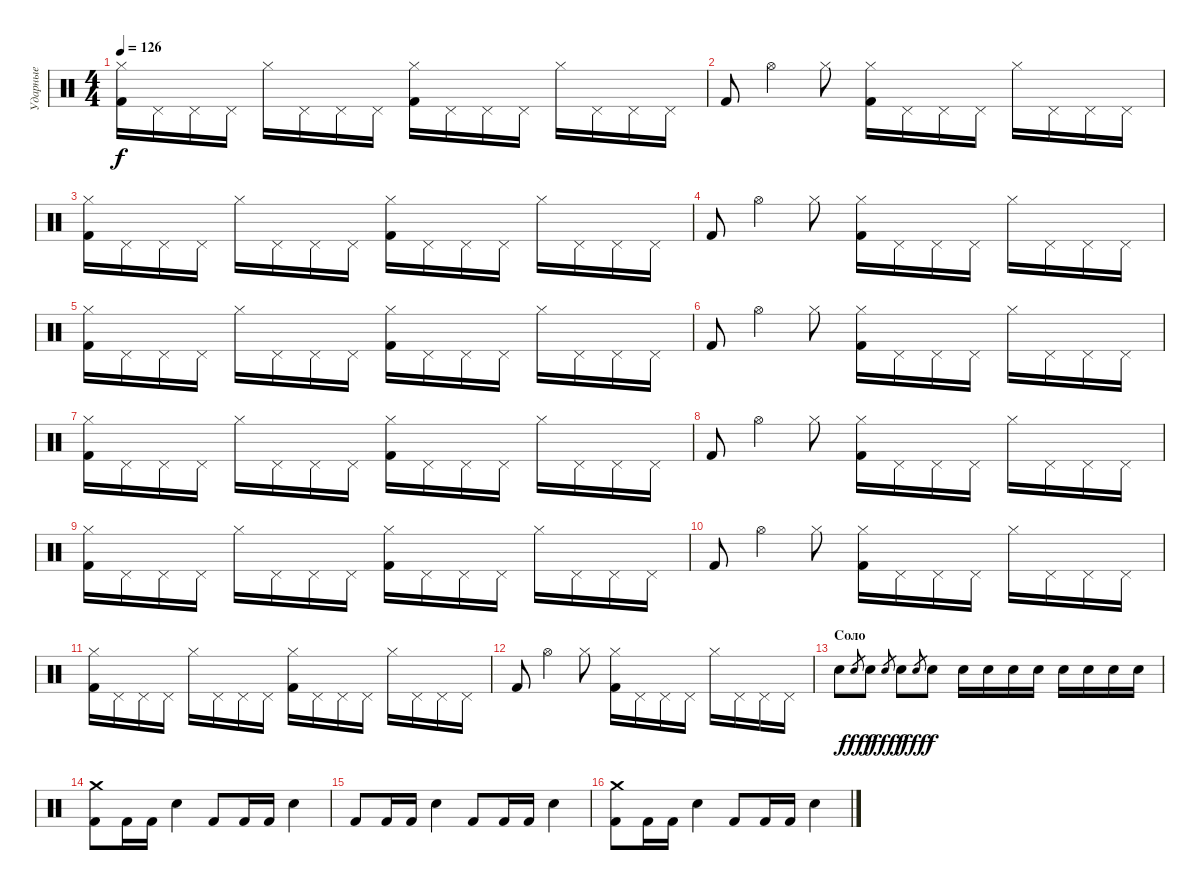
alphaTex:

\track ("Ударные" "Ударные") {instrument percussion}
\staff {score}
\articulation defaults
\ts (4 4)
\tempo 126
\clef neutral
\ks c
("Hi-Hat (closed)" "Kick (hit) 2").16{dy f} "Pedal Hi-Hat (hit)".16 "Pedal Hi-Hat (hit)".16 "Pedal Hi-Hat (hit)".16 "Hi-Hat (closed)".16 "Pedal Hi-Hat (hit)".16 "Pedal Hi-Hat (hit)".16 "Pedal Hi-Hat (hit)".16 ("Hi-Hat (closed)" "Kick (hit) 2").16 "Pedal Hi-Hat (hit)".16 "Pedal Hi-Hat (hit)".16 "Pedal Hi-Hat (hit)".16 "Hi-Hat (closed)".16 "Pedal Hi-Hat (hit)".16 "Pedal Hi-Hat (hit)".16 "Pedal Hi-Hat (hit)".16 |
"Kick (hit) 2".8 "Hi-Hat (open)".4 "Hi-Hat (closed)".8 ("Hi-Hat (closed)" "Kick (hit) 2").16 "Pedal Hi-Hat (hit)".16 "Pedal Hi-Hat (hit)".16 "Pedal Hi-Hat (hit)".16 "Hi-Hat (closed)".16 "Pedal Hi-Hat (hit)".16 "Pedal Hi-Hat (hit)".16 "Pedal Hi-Hat (hit)".16 |
("Hi-Hat (closed)" "Kick (hit) 2").16 "Pedal Hi-Hat (hit)".16 "Pedal Hi-Hat (hit)".16 "Pedal Hi-Hat (hit)".16 "Hi-Hat (closed)".16 "Pedal Hi-Hat (hit)".16 "Pedal Hi-Hat (hit)".16 "Pedal Hi-Hat (hit)".16 ("Hi-Hat (closed)" "Kick (hit) 2").16 "Pedal Hi-Hat (hit)".16 "Pedal Hi-Hat (hit)".16 "Pedal Hi-Hat (hit)".16 "Hi-Hat (closed)".16 "Pedal Hi-Hat (hit)".16 "Pedal Hi-Hat (hit)".16 "Pedal Hi-Hat (hit)".16 |
"Kick (hit) 2".8 "Hi-Hat (open)".4 "Hi-Hat (closed)".8 ("Hi-Hat (closed)" "Kick (hit) 2").16 "Pedal Hi-Hat (hit)".16 "Pedal Hi-Hat (hit)".16 "Pedal Hi-Hat (hit)".16 "Hi-Hat (closed)".16 "Pedal Hi-Hat (hit)".16 "Pedal Hi-Hat (hit)".16 "Pedal Hi-Hat (hit)".16 |
("Hi-Hat (closed)" "Kick (hit) 2").16 "Pedal Hi-Hat (hit)".16 "Pedal Hi-Hat (hit)".16 "Pedal Hi-Hat (hit)".16 "Hi-Hat (closed)".16 "Pedal Hi-Hat (hit)".16 "Pedal Hi-Hat (hit)".16 "Pedal Hi-Hat (hit)".16 ("Hi-Hat (closed)" "Kick (hit) 2").16 "Pedal Hi-Hat (hit)".16 "Pedal Hi-Hat (hit)".16 "Pedal Hi-Hat (hit)".16 "Hi-Hat (closed)".16 "Pedal Hi-Hat (hit)".16 "Pedal Hi-Hat (hit)".16 "Pedal Hi-Hat (hit)".16 |
"Kick (hit) 2".8 "Hi-Hat (open)".4 "Hi-Hat (closed)".8 ("Hi-Hat (closed)" "Kick (hit) 2").16 "Pedal Hi-Hat (hit)".16 "Pedal Hi-Hat (hit)".16 "Pedal Hi-Hat (hit)".16 "Hi-Hat (closed)".16 "Pedal Hi-Hat (hit)".16 "Pedal Hi-Hat (hit)".16 "Pedal Hi-Hat (hit)".16 |
("Hi-Hat (closed)" "Kick (hit) 2").16 "Pedal Hi-Hat (hit)".16 "Pedal Hi-Hat (hit)".16 "Pedal Hi-Hat (hit)".16 "Hi-Hat (closed)".16 "Pedal Hi-Hat (hit)".16 "Pedal Hi-Hat (hit)".16 "Pedal Hi-Hat (hit)".16 ("Hi-Hat (closed)" "Kick (hit) 2").16 "Pedal Hi-Hat (hit)".16 "Pedal Hi-Hat (hit)".16 "Pedal Hi-Hat (hit)".16 "Hi-Hat (closed)".16 "Pedal Hi-Hat (hit)".16 "Pedal Hi-Hat (hit)".16 "Pedal Hi-Hat (hit)".16 |
"Kick (hit) 2".8 "Hi-Hat (open)".4 "Hi-Hat (closed)".8 ("Hi-Hat (closed)" "Kick (hit) 2").16 "Pedal Hi-Hat (hit)".16 "Pedal Hi-Hat (hit)".16 "Pedal Hi-Hat (hit)".16 "Hi-Hat (closed)".16 "Pedal Hi-Hat (hit)".16 "Pedal Hi-Hat (hit)".16 "Pedal Hi-Hat (hit)".16 |
("Hi-Hat (closed)" "Kick (hit) 2").16 "Pedal Hi-Hat (hit)".16 "Pedal Hi-Hat (hit)".16 "Pedal Hi-Hat (hit)".16 "Hi-Hat (closed)".16 "Pedal Hi-Hat (hit)".16 "Pedal Hi-Hat (hit)".16 "Pedal Hi-Hat (hit)".16 ("Hi-Hat (closed)" "Kick (hit) 2").16 "Pedal Hi-Hat (hit)".16 "Pedal Hi-Hat (hit)".16 "Pedal Hi-Hat (hit)".16 "Hi-Hat (closed)".16 "Pedal Hi-Hat (hit)".16 "Pedal Hi-Hat (hit)".16 "Pedal Hi-Hat (hit)".16 |
"Kick (hit) 2".8 "Hi-Hat (open)".4 "Hi-Hat (closed)".8 ("Hi-Hat (closed)" "Kick (hit) 2").16 "Pedal Hi-Hat (hit)".16 "Pedal Hi-Hat (hit)".16 "Pedal Hi-Hat (hit)".16 "Hi-Hat (closed)".16 "Pedal Hi-Hat (hit)".16 "Pedal Hi-Hat (hit)".16 "Pedal Hi-Hat (hit)".16 |
("Hi-Hat (closed)" "Kick (hit) 2").16 "Pedal Hi-Hat (hit)".16 "Pedal Hi-Hat (hit)".16 "Pedal Hi-Hat (hit)".16 "Hi-Hat (closed)".16 "Pedal Hi-Hat (hit)".16 "Pedal Hi-Hat (hit)".16 "Pedal Hi-Hat (hit)".16 ("Hi-Hat (closed)" "Kick (hit) 2").16 "Pedal Hi-Hat (hit)".16 "Pedal Hi-Hat (hit)".16 "Pedal Hi-Hat (hit)".16 "Hi-Hat (closed)".16 "Pedal Hi-Hat (hit)".16 "Pedal Hi-Hat (hit)".16 "Pedal Hi-Hat (hit)".16 |
"Kick (hit) 2".8 "Hi-Hat (open)".4 "Hi-Hat (closed)".8 ("Hi-Hat (closed)" "Kick (hit) 2").16 "Pedal Hi-Hat (hit)".16 "Pedal Hi-Hat (hit)".16 "Pedal Hi-Hat (hit)".16 "Hi-Hat (closed)".16 "Pedal Hi-Hat (hit)".16 "Pedal Hi-Hat (hit)".16 "Pedal Hi-Hat (hit)".16{volume 0} |
\section ("" "Соло")
"Snare (hit) 2".8{volume 16} "Snare (hit) 2".8{gr dy fff} "Snare (hit) 2".8{dy f} "Snare (hit) 2".8{gr dy fff} "Snare (hit) 2".8{dy f} "Snare (hit) 2".8{gr dy fff} "Snare (hit) 2".8{dy f} "Snare (hit) 2".16 "Snare (hit) 2".16 "Snare (hit) 2".16 "Snare (hit) 2".16 "Snare (hit) 2".16 "Snare (hit) 2".16 "Snare (hit) 2".16 "Snare (hit) 2".16 |
("Kick (hit) 2" "Crash medium (hit)").8 "Kick (hit) 2".16 "Kick (hit) 2".16 "Snare (hit) 2".4 "Kick (hit) 2".8 "Kick (hit) 2".16 "Kick (hit) 2".16 "Snare (hit) 2".4 |
"Kick (hit) 2".8 "Kick (hit) 2".16 "Kick (hit) 2".16 "Snare (hit) 2".4 "Kick (hit) 2".8 "Kick (hit) 2".16 "Kick (hit) 2".16 "Snare (hit) 2".4 |
("Kick (hit) 2" "Crash medium (hit)").8 "Kick (hit) 2".16 "Kick (hit) 2".16 "Snare (hit) 2".4 "Kick (hit) 2".8 "Kick (hit) 2".16 "Kick (hit) 2".16 "Snare (hit) 2".4
